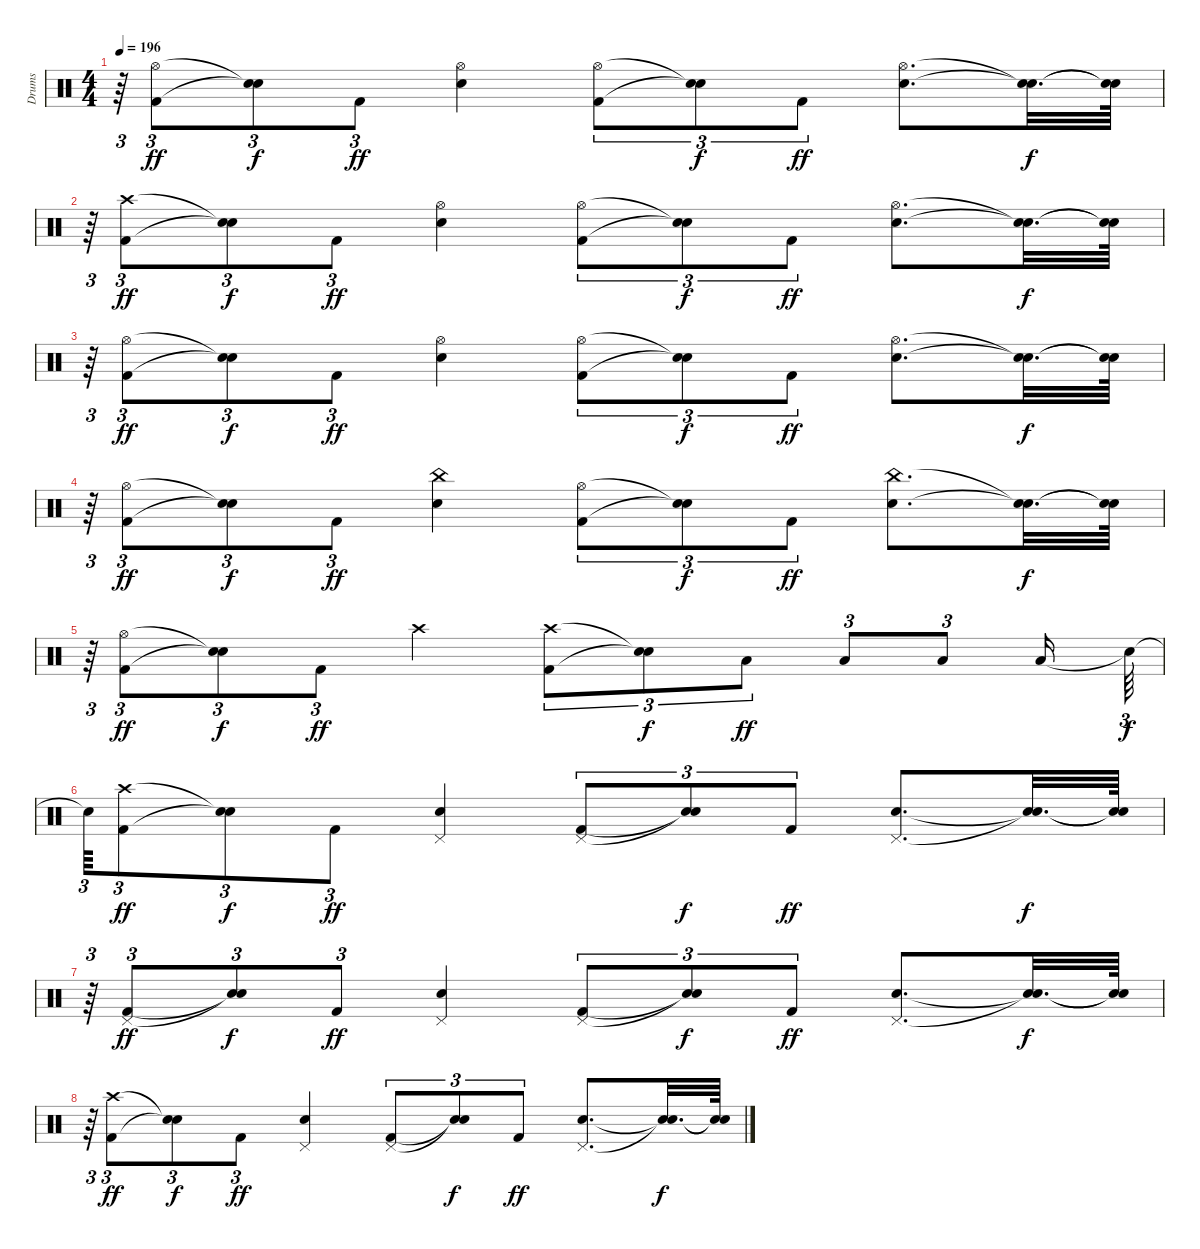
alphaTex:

\track ("Drums" "Drums") {instrument percussion}
\staff {score}
\articulation defaults
\ts (4 4)
\tempo 196
\clef neutral
\ks c
r.64{tu (3 2) dy f} ("Kick (hit) 2" "Hi-Hat (open)").8{tu (3 2) dy ff} ("Snare (hit)"{t} "Snare (hit)"{t}).8{tu (3 2) dy f} "Kick (hit) 2".8{tu (3 2) dy ff} ("Hi-Hat (open)" "Electric Snare (hit)").4 ("Kick (hit) 2" "Hi-Hat (open)").8{tu (3 2)} ("Snare (hit)"{t} "Snare (hit)"{t}).8{tu (3 2) dy f} "Kick (hit) 2".8{tu (3 2) dy ff} ("Hi-Hat (open)" "Electric Snare (hit)").8{d} ("Snare (hit)"{t} "Snare (hit)"{t}).32{d dy f} ("Snare (hit)"{t} "Snare (hit)"{t}).64 |
r.64{tu (3 2)} ("Kick (hit) 2" "Crash high (hit)").8{tu (3 2) dy ff} ("Snare (hit)"{t} "Snare (hit)"{t}).8{tu (3 2) dy f} "Kick (hit) 2".8{tu (3 2) dy ff} ("Hi-Hat (open)" "Electric Snare (hit)").4 ("Kick (hit) 2" "Hi-Hat (open)").8{tu (3 2)} ("Snare (hit)"{t} "Snare (hit)"{t}).8{tu (3 2) dy f} "Kick (hit) 2".8{tu (3 2) dy ff} ("Hi-Hat (open)" "Electric Snare (hit)").8{d} ("Snare (hit)"{t} "Snare (hit)"{t}).32{d dy f} ("Snare (hit)"{t} "Snare (hit)"{t}).64 |
r.64{tu (3 2)} ("Kick (hit) 2" "Hi-Hat (open)").8{tu (3 2) dy ff} ("Snare (hit)"{t} "Snare (hit)"{t}).8{tu (3 2) dy f} "Kick (hit) 2".8{tu (3 2) dy ff} ("Hi-Hat (open)" "Electric Snare (hit)").4 ("Kick (hit) 2" "Hi-Hat (open)").8{tu (3 2)} ("Snare (hit)"{t} "Snare (hit)"{t}).8{tu (3 2) dy f} "Kick (hit) 2".8{tu (3 2) dy ff} ("Hi-Hat (open)" "Electric Snare (hit)").8{d} ("Snare (hit)"{t} "Snare (hit)"{t}).32{d dy f} ("Snare (hit)"{t} "Snare (hit)"{t}).64 |
r.64{tu (3 2)} ("Hi-Hat (open)" "Kick (hit) 2").8{tu (3 2) dy ff} ("Snare (hit)"{t} "Snare (hit)"{t}).8{tu (3 2) dy f} "Kick (hit) 2".8{tu (3 2) dy ff} ("China (hit)" "Electric Snare (hit)").4 ("Hi-Hat (open)" "Kick (hit) 2").8{tu (3 2)} ("Snare (hit)"{t} "Snare (hit)"{t}).8{tu (3 2) dy f} "Kick (hit) 2".8{tu (3 2) dy ff} ("China (hit)" "Electric Snare (hit)").8{d} ("Snare (hit)"{t} "Snare (hit)"{t}).32{d dy f} ("Snare (hit)"{t} "Snare (hit)"{t}).64 |
r.64{tu (3 2)} ("Hi-Hat (open)" "Kick (hit) 2").8{tu (3 2) dy ff} ("Snare (hit)"{t} "Snare (hit)"{t}).8{tu (3 2) dy f} "Kick (hit) 2".8{tu (3 2) dy ff} "Crash high (hit)".4 ("Crash high (hit)" "Kick (hit) 2").8{tu (3 2)} ("Snare (hit)"{t} "Snare (hit)"{t}).8{tu (3 2) dy f} "Low Tom (hit)".8{tu (3 2) dy ff} "Low Tom (hit)".8{tu (3 2)} "Low Tom (hit)".8{tu (3 2)} "Low Tom (hit)".16 "Snare (hit)"{t}.64{tu (3 2) dy f} |
"Snare (hit)"{t}.64{tu (3 2)} ("Kick (hit) 2" "Crash high (hit)").8{tu (3 2) dy ff} ("Snare (hit)"{t} "Snare (hit)"{t}).8{tu (3 2) dy f} "Kick (hit) 2".8{tu (3 2) dy ff} ("Pedal Hi-Hat (hit)" "Electric Snare (hit)").4 ("Kick (hit) 2" "Pedal Hi-Hat (hit)").8{tu (3 2)} ("Snare (hit)"{t} "Snare (hit)"{t}).8{tu (3 2) dy f} "Kick (hit) 2".8{tu (3 2) dy ff} ("Pedal Hi-Hat (hit)" "Electric Snare (hit)").8{d} ("Snare (hit)"{t} "Snare (hit)"{t}).32{d dy f} ("Snare (hit)"{t} "Snare (hit)"{t}).64 |
r.64{tu (3 2)} ("Kick (hit) 2" "Pedal Hi-Hat (hit)").8{tu (3 2) dy ff} ("Snare (hit)"{t} "Snare (hit)"{t}).8{tu (3 2) dy f} "Kick (hit) 2".8{tu (3 2) dy ff} ("Pedal Hi-Hat (hit)" "Electric Snare (hit)").4 ("Kick (hit) 2" "Pedal Hi-Hat (hit)").8{tu (3 2)} ("Snare (hit)"{t} "Snare (hit)"{t}).8{tu (3 2) dy f} "Kick (hit) 2".8{tu (3 2) dy ff} ("Pedal Hi-Hat (hit)" "Electric Snare (hit)").8{d} ("Snare (hit)"{t} "Snare (hit)"{t}).32{d dy f} ("Snare (hit)"{t} "Snare (hit)"{t}).64 |
r.64{tu (3 2)} ("Kick (hit) 2" "Crash high (hit)").8{tu (3 2) dy ff} ("Snare (hit)"{t} "Snare (hit)"{t}).8{tu (3 2) dy f} "Kick (hit) 2".8{tu (3 2) dy ff} ("Pedal Hi-Hat (hit)" "Electric Snare (hit)").4 ("Kick (hit) 2" "Pedal Hi-Hat (hit)").8{tu (3 2)} ("Snare (hit)"{t} "Snare (hit)"{t}).8{tu (3 2) dy f} "Kick (hit) 2".8{tu (3 2) dy ff} ("Pedal Hi-Hat (hit)" "Electric Snare (hit)").8{d} ("Snare (hit)"{t} "Snare (hit)"{t}).32{d dy f} ("Snare (hit)"{t} "Snare (hit)"{t}).64
